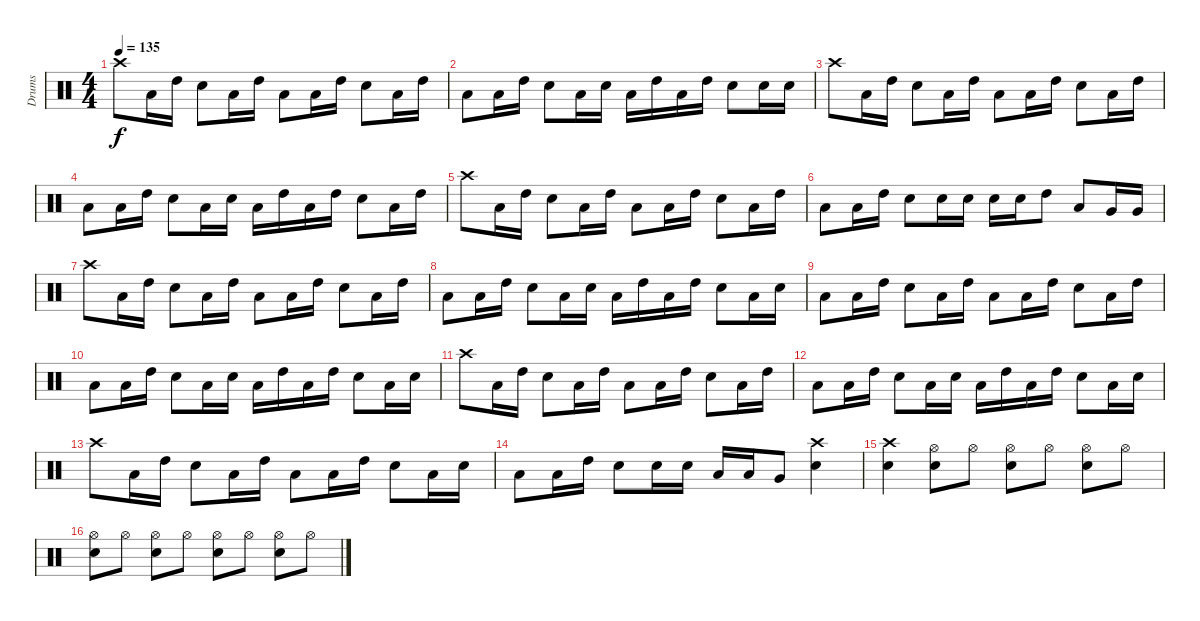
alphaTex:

\track ("Drums" "Drums") {instrument percussion}
\staff {score}
\articulation defaults
\ts (4 4)
\tempo 135
\clef neutral
\ks c "Crash high (hit)".8{dy f} "Low Tom (hit)".16 "High Tom (hit)".16 "Snare (hit) 2".8 "Low Tom (hit)".16 "High Tom (hit)".16 "Low Tom (hit)".8 "Low Tom (hit)".16 "High Tom (hit)".16 "Snare (hit) 2".8 "Low Tom (hit)".16 "High Tom (hit)".16
|
"Low Tom (hit)".8 "Low Tom (hit)".16 "High Tom (hit)".16 "Snare (hit) 2".8 "Low Tom (hit)".16 "Snare (hit) 2".16 "Low Tom (hit)".16 "High Tom (hit)".16 "Low Tom (hit)".16 "High Tom (hit)".16 "Snare (hit) 2".8 "Snare (hit) 2".16 "Snare (hit) 2".16 |
"Crash high (hit)".8 "Low Tom (hit)".16 "High Tom (hit)".16 "Snare (hit) 2".8 "Low Tom (hit)".16 "High Tom (hit)".16 "Low Tom (hit)".8 "Low Tom (hit)".16 "High Tom (hit)".16 "Snare (hit) 2".8 "Low Tom (hit)".16 "High Tom (hit)".16 |
"Low Tom (hit)".8 "Low Tom (hit)".16 "High Tom (hit)".16 "Snare (hit) 2".8 "Low Tom (hit)".16 "Snare (hit) 2".16 "Low Tom (hit)".16 "High Tom (hit)".16 "Low Tom (hit)".16 "High Tom (hit)".16 "Snare (hit) 2".8 "Low Tom (hit)".16 "High Tom (hit)".16 |
"Crash high (hit)".8 "Low Tom (hit)".16 "High Tom (hit)".16 "Snare (hit) 2".8 "Low Tom (hit)".16 "High Tom (hit)".16 "Low Tom (hit)".8 "Low Tom (hit)".16 "High Tom (hit)".16 "Snare (hit) 2".8 "Low Tom (hit)".16 "High Tom (hit)".16 |
"Low Tom (hit)".8 "Low Tom (hit)".16 "High Tom (hit)".16 "Snare (hit) 2".8 "Snare (hit) 2".16 "Snare (hit) 2".16 "Snare (hit) 2".16 "Snare (hit) 2".16 "High Tom (hit)".8 "Low Tom (hit)".8 "Very Low Tom (hit)".16 "Very Low Tom (hit)".16 |
"Crash high (hit)".8 "Low Tom (hit)".16 "High Tom (hit)".16 "Snare (hit) 2".8 "Low Tom (hit)".16 "High Tom (hit)".16 "Low Tom (hit)".8 "Low Tom (hit)".16 "High Tom (hit)".16 "Snare (hit) 2".8 "Low Tom (hit)".16 "High Tom (hit)".16 |
"Low Tom (hit)".8 "Low Tom (hit)".16 "High Tom (hit)".16 "Snare (hit) 2".8 "Low Tom (hit)".16 "Snare (hit) 2".16 "Low Tom (hit)".16 "High Tom (hit)".16 "Low Tom (hit)".16 "High Tom (hit)".16 "Snare (hit) 2".8 "Low Tom (hit)".16 "Snare (hit) 2".16 |
"Low Tom (hit)".8 "Low Tom (hit)".16 "High Tom (hit)".16 "Snare (hit) 2".8 "Low Tom (hit)".16 "High Tom (hit)".16 "Low Tom (hit)".8 "Low Tom (hit)".16 "High Tom (hit)".16 "Snare (hit) 2".8 "Low Tom (hit)".16 "High Tom (hit)".16 |
"Low Tom (hit)".8 "Low Tom (hit)".16 "High Tom (hit)".16 "Snare (hit) 2".8 "Low Tom (hit)".16 "Snare (hit) 2".16 "Low Tom (hit)".16 "High Tom (hit)".16 "Low Tom (hit)".16 "High Tom (hit)".16 "Snare (hit) 2".8 "Low Tom (hit)".16 "Snare (hit) 2".16 |
"Crash high (hit)".8 "Low Tom (hit)".16 "High Tom (hit)".16 "Snare (hit) 2".8 "Low Tom (hit)".16 "High Tom (hit)".16 "Low Tom (hit)".8 "Low Tom (hit)".16 "High Tom (hit)".16 "Snare (hit) 2".8 "Low Tom (hit)".16 "High Tom (hit)".16 |
"Low Tom (hit)".8 "Low Tom (hit)".16 "High Tom (hit)".16 "Snare (hit) 2".8 "Low Tom (hit)".16 "Snare (hit) 2".16 "Low Tom (hit)".16 "High Tom (hit)".16 "Low Tom (hit)".16 "High Tom (hit)".16 "Snare (hit) 2".8 "Low Tom (hit)".16 "Snare (hit) 2".16 |
"Crash high (hit)".8 "Low Tom (hit)".16 "High Tom (hit)".16 "Snare (hit) 2".8 "Low Tom (hit)".16 "High Tom (hit)".16 "Low Tom (hit)".8 "Low Tom (hit)".16 "High Tom (hit)".16 "Snare (hit) 2".8 "Low Tom (hit)".16 "Snare (hit) 2".16 |
"Low Tom (hit)".8 "Low Tom (hit)".16 "High Tom (hit)".16 "Snare (hit) 2".8 "Snare (hit) 2".16 "Snare (hit) 2".16 "Low Tom (hit)".16 "Low Tom (hit)".16 "Very Low Tom (hit)".8 ("Crash high (hit)" "Snare (hit) 2").4 |
("Crash high (hit)" "Snare (hit) 2").4 ("Hi-Hat (open)" "Snare (hit) 2").8 "Hi-Hat (open)".8 ("Hi-Hat (open)" "Snare (hit) 2").8 "Hi-Hat (open)".8 ("Hi-Hat (open)" "Snare (hit) 2").8 "Hi-Hat (open)".8 |
("Hi-Hat (open)" "Snare (hit) 2").8 "Hi-Hat (open)".8 ("Hi-Hat (open)" "Snare (hit) 2").8 "Hi-Hat (open)".8 ("Hi-Hat (open)" "Snare (hit) 2").8 "Hi-Hat (open)".8 ("Hi-Hat (open)" "Snare (hit) 2").8 "Hi-Hat (open)".8
